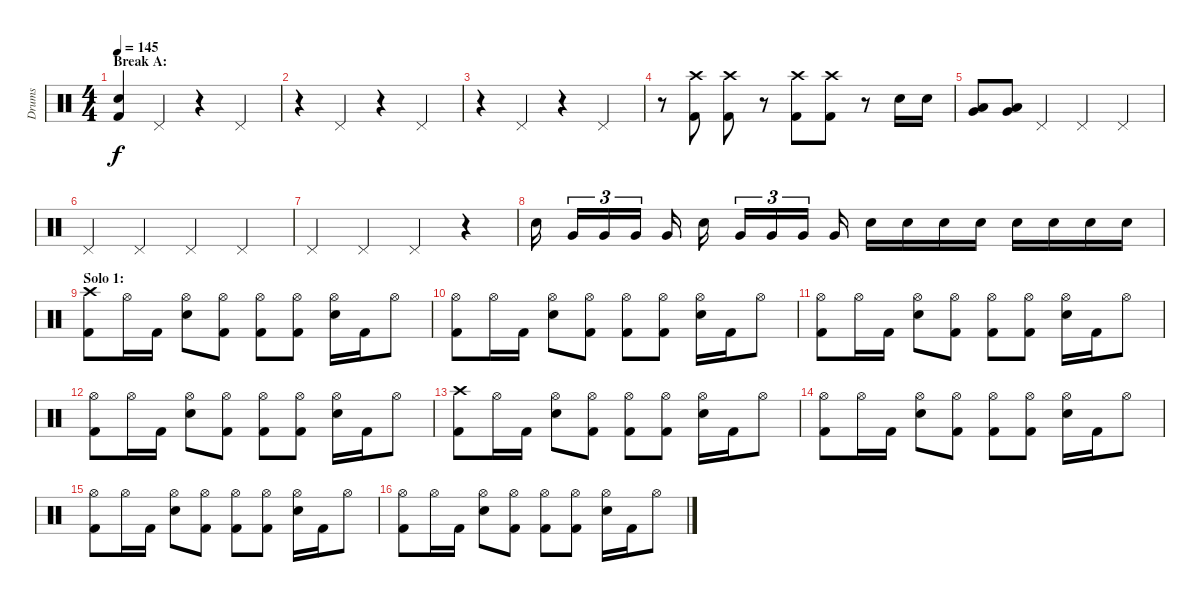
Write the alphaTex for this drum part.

\track ("Drums" "Drums") {instrument percussion}
\staff {score}
\articulation defaults
\ts (4 4)
\section ("" "Break A:")
\tempo 145
\clef neutral
\ks c
("Snare (hit) 2" "Kick (hit) 2").4{dy f} "Pedal Hi-Hat (hit)".4 r.4 "Pedal Hi-Hat (hit)".4 |
r.4 "Pedal Hi-Hat (hit)".4 r.4 "Pedal Hi-Hat (hit)".4 |
r.4 "Pedal Hi-Hat (hit)".4 r.4 "Pedal Hi-Hat (hit)".4 |
r.8 ("Crash high (hit)" "Kick (hit) 2").8 ("Crash high (hit)" "Kick (hit) 2").8 r.8 ("Crash high (hit)" "Kick (hit) 2").8 ("Crash high (hit)" "Kick (hit) 2").8 r.8 "Snare (hit) 2".16 "Snare (hit) 2".16 |
("Low Tom (hit)" "Very Low Tom (hit)").8 ("Low Tom (hit)" "Very Low Tom (hit)").8 "Pedal Hi-Hat (hit)".4 "Pedal Hi-Hat (hit)".4 "Pedal Hi-Hat (hit)".4 |
"Pedal Hi-Hat (hit)".4 "Pedal Hi-Hat (hit)".4 "Pedal Hi-Hat (hit)".4 "Pedal Hi-Hat (hit)".4 |
"Pedal Hi-Hat (hit)".4 "Pedal Hi-Hat (hit)".4 "Pedal Hi-Hat (hit)".4 r.4 |
"Snare (hit) 2".16 "Very Low Tom (hit)".16{tu (3 2)} "Very Low Tom (hit)".16{tu (3 2)} "Very Low Tom (hit)".16{tu (3 2)} "Very Low Tom (hit)".16 "Snare (hit) 2".16 "Very Low Tom (hit)".16{tu (3 2)} "Very Low Tom (hit)".16{tu (3 2)} "Very Low Tom (hit)".16{tu (3 2)} "Very Low Tom (hit)".16 "Snare (hit) 2".16 "Snare (hit) 2".16 "Snare (hit) 2".16 "Snare (hit) 2".16 "Snare (hit) 2".16 "Snare (hit) 2".16 "Snare (hit) 2".16 "Snare (hit) 2".16 |
\section ("" "Solo 1:")
("Crash high (hit)" "Kick (hit) 2").8 "Hi-Hat (open)".16 "Kick (hit) 2".16 ("Hi-Hat (open)" "Snare (hit) 2").8 ("Hi-Hat (open)" "Kick (hit) 2").8 ("Hi-Hat (open)" "Kick (hit) 2").8 ("Hi-Hat (open)" "Kick (hit) 2").8 ("Hi-Hat (open)" "Snare (hit) 2").16 "Kick (hit) 2".16 "Hi-Hat (open)".8 |
("Hi-Hat (open)" "Kick (hit) 2").8 "Hi-Hat (open)".16 "Kick (hit) 2".16 ("Hi-Hat (open)" "Snare (hit) 2").8 ("Hi-Hat (open)" "Kick (hit) 2").8 ("Hi-Hat (open)" "Kick (hit) 2").8 ("Hi-Hat (open)" "Kick (hit) 2").8 ("Hi-Hat (open)" "Snare (hit) 2").16 "Kick (hit) 2".16 "Hi-Hat (open)".8 |
("Hi-Hat (open)" "Kick (hit) 2").8 "Hi-Hat (open)".16 "Kick (hit) 2".16 ("Hi-Hat (open)" "Snare (hit) 2").8 ("Hi-Hat (open)" "Kick (hit) 2").8 ("Hi-Hat (open)" "Kick (hit) 2").8 ("Hi-Hat (open)" "Kick (hit) 2").8 ("Hi-Hat (open)" "Snare (hit) 2").16 "Kick (hit) 2".16 "Hi-Hat (open)".8 |
("Hi-Hat (open)" "Kick (hit) 2").8 "Hi-Hat (open)".16 "Kick (hit) 2".16 ("Hi-Hat (open)" "Snare (hit) 2").8 ("Hi-Hat (open)" "Kick (hit) 2").8 ("Hi-Hat (open)" "Kick (hit) 2").8 ("Hi-Hat (open)" "Kick (hit) 2").8 ("Hi-Hat (open)" "Snare (hit) 2").16 "Kick (hit) 2".16 "Hi-Hat (open)".8 |
("Crash high (hit)" "Kick (hit) 2").8 "Hi-Hat (open)".16 "Kick (hit) 2".16 ("Hi-Hat (open)" "Snare (hit) 2").8 ("Hi-Hat (open)" "Kick (hit) 2").8 ("Hi-Hat (open)" "Kick (hit) 2").8 ("Hi-Hat (open)" "Kick (hit) 2").8 ("Hi-Hat (open)" "Snare (hit) 2").16 "Kick (hit) 2".16 "Hi-Hat (open)".8 |
("Hi-Hat (open)" "Kick (hit) 2").8 "Hi-Hat (open)".16 "Kick (hit) 2".16 ("Hi-Hat (open)" "Snare (hit) 2").8 ("Hi-Hat (open)" "Kick (hit) 2").8 ("Hi-Hat (open)" "Kick (hit) 2").8 ("Hi-Hat (open)" "Kick (hit) 2").8 ("Hi-Hat (open)" "Snare (hit) 2").16 "Kick (hit) 2".16 "Hi-Hat (open)".8 |
("Hi-Hat (open)" "Kick (hit) 2").8 "Hi-Hat (open)".16 "Kick (hit) 2".16 ("Hi-Hat (open)" "Snare (hit) 2").8 ("Hi-Hat (open)" "Kick (hit) 2").8 ("Hi-Hat (open)" "Kick (hit) 2").8 ("Hi-Hat (open)" "Kick (hit) 2").8 ("Hi-Hat (open)" "Snare (hit) 2").16 "Kick (hit) 2".16 "Hi-Hat (open)".8 |
("Hi-Hat (open)" "Kick (hit) 2").8 "Hi-Hat (open)".16 "Kick (hit) 2".16 ("Hi-Hat (open)" "Snare (hit) 2").8 ("Hi-Hat (open)" "Kick (hit) 2").8 ("Hi-Hat (open)" "Kick (hit) 2").8 ("Hi-Hat (open)" "Kick (hit) 2").8 ("Hi-Hat (open)" "Snare (hit) 2").16 "Kick (hit) 2".16 "Hi-Hat (open)".8
